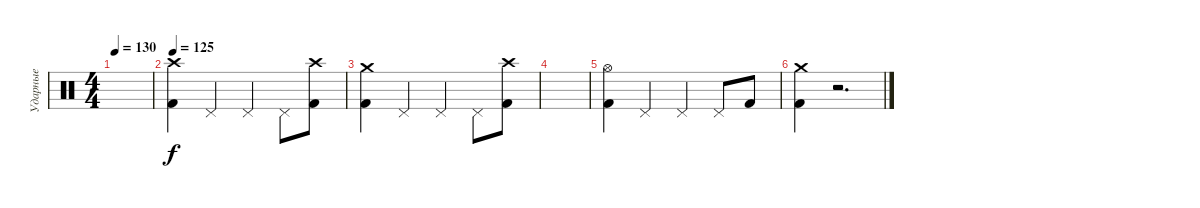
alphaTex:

\track ("Ударные" "Ударные") {instrument percussion}
\staff {score}
\articulation defaults
\ts (4 4)
\tempo 130
\clef neutral
\ks c
|
\tempo 125
("Crash high (hit)" "Kick (hit) 2").4 "Pedal Hi-Hat (hit)".4 "Pedal Hi-Hat (hit)".4 "Pedal Hi-Hat (hit)".8 ("Crash high (hit)" "Kick (hit) 2").8 |
("Crash medium (hit)" "Kick (hit) 2").4 "Pedal Hi-Hat (hit)".4 "Pedal Hi-Hat (hit)".4 "Pedal Hi-Hat (hit)".8 ("Crash high (hit)" "Kick (hit) 2").8 |
|
("Hi-Hat (open)" "Kick (hit) 2").4{dy f} "Pedal Hi-Hat (hit)".4 "Pedal Hi-Hat (hit)".4 "Pedal Hi-Hat (hit)".8 "Kick (hit) 2".8 |
("Crash medium (hit)" "Kick (hit) 2").4 r.2{d}
